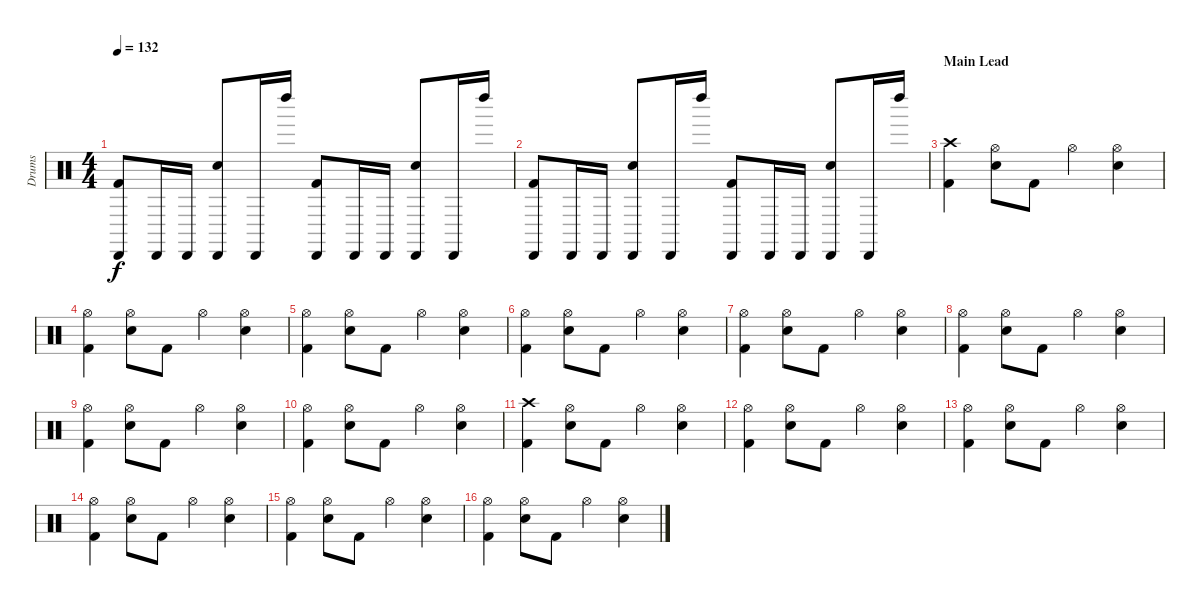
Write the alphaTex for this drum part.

\track ("Drums" "Drums") {instrument percussion}
\staff {score}
\articulation defaults
\ts (4 4)
\tempo 132
\clef neutral
\ks c
("Kick (hit) 2" "Cabasa (hit)").8{dy f} "Cabasa (hit)".16 "Cabasa (hit)".16 ("Snare (hit) 2" "Cabasa (hit)").8 "Cabasa (hit)".16 "Left Maraca (hit)".16 ("Kick (hit) 2" "Cabasa (hit)").8 "Cabasa (hit)".16 "Cabasa (hit)".16 ("Snare (hit) 2" "Cabasa (hit)").8 "Cabasa (hit)".16 "Left Maraca (hit)".16 |
("Kick (hit) 2" "Cabasa (hit)").8 "Cabasa (hit)".16 "Cabasa (hit)".16 ("Snare (hit) 2" "Cabasa (hit)").8 "Cabasa (hit)".16 "Left Maraca (hit)".16 ("Kick (hit) 2" "Cabasa (hit)").8 "Cabasa (hit)".16 "Cabasa (hit)".16 ("Snare (hit) 2" "Cabasa (hit)").8 "Cabasa (hit)".16 "Left Maraca (hit)".16 |
\section ("" "Main Lead")
("Kick (hit) 2" "Crash high (hit)").4 ("Snare (hit) 2" "Hi-Hat (open)").8 "Kick (hit) 2".8 "Hi-Hat (open)".4 ("Snare (hit) 2" "Hi-Hat (open)").4 |
("Kick (hit) 2" "Hi-Hat (open)").4 ("Snare (hit) 2" "Hi-Hat (open)").8 "Kick (hit) 2".8 "Hi-Hat (open)".4 ("Snare (hit) 2" "Hi-Hat (open)").4 |
("Kick (hit) 2" "Hi-Hat (open)").4 ("Snare (hit) 2" "Hi-Hat (open)").8 "Kick (hit) 2".8 "Hi-Hat (open)".4 ("Snare (hit) 2" "Hi-Hat (open)").4 |
("Kick (hit) 2" "Hi-Hat (open)").4 ("Snare (hit) 2" "Hi-Hat (open)").8 "Kick (hit) 2".8 "Hi-Hat (open)".4 ("Snare (hit) 2" "Hi-Hat (open)").4 |
("Kick (hit) 2" "Hi-Hat (open)").4 ("Snare (hit) 2" "Hi-Hat (open)").8 "Kick (hit) 2".8 "Hi-Hat (open)".4 ("Snare (hit) 2" "Hi-Hat (open)").4 |
("Kick (hit) 2" "Hi-Hat (open)").4 ("Snare (hit) 2" "Hi-Hat (open)").8 "Kick (hit) 2".8 "Hi-Hat (open)".4 ("Snare (hit) 2" "Hi-Hat (open)").4 |
("Kick (hit) 2" "Hi-Hat (open)").4 ("Snare (hit) 2" "Hi-Hat (open)").8 "Kick (hit) 2".8 "Hi-Hat (open)".4 ("Snare (hit) 2" "Hi-Hat (open)").4 |
("Kick (hit) 2" "Hi-Hat (open)").4 ("Snare (hit) 2" "Hi-Hat (open)").8 "Kick (hit) 2".8 "Hi-Hat (open)".4 ("Snare (hit) 2" "Hi-Hat (open)").4 |
("Kick (hit) 2" "Crash high (hit)").4 ("Snare (hit) 2" "Hi-Hat (open)").8 "Kick (hit) 2".8 "Hi-Hat (open)".4 ("Snare (hit) 2" "Hi-Hat (open)").4 |
("Kick (hit) 2" "Hi-Hat (open)").4 ("Snare (hit) 2" "Hi-Hat (open)").8 "Kick (hit) 2".8 "Hi-Hat (open)".4 ("Snare (hit) 2" "Hi-Hat (open)").4 |
("Kick (hit) 2" "Hi-Hat (open)").4 ("Snare (hit) 2" "Hi-Hat (open)").8 "Kick (hit) 2".8 "Hi-Hat (open)".4 ("Snare (hit) 2" "Hi-Hat (open)").4 |
("Kick (hit) 2" "Hi-Hat (open)").4 ("Snare (hit) 2" "Hi-Hat (open)").8 "Kick (hit) 2".8 "Hi-Hat (open)".4 ("Snare (hit) 2" "Hi-Hat (open)").4 |
("Kick (hit) 2" "Hi-Hat (open)").4 ("Snare (hit) 2" "Hi-Hat (open)").8 "Kick (hit) 2".8 "Hi-Hat (open)".4 ("Snare (hit) 2" "Hi-Hat (open)").4 |
("Kick (hit) 2" "Hi-Hat (open)").4 ("Snare (hit) 2" "Hi-Hat (open)").8 "Kick (hit) 2".8 "Hi-Hat (open)".4 ("Snare (hit) 2" "Hi-Hat (open)").4
